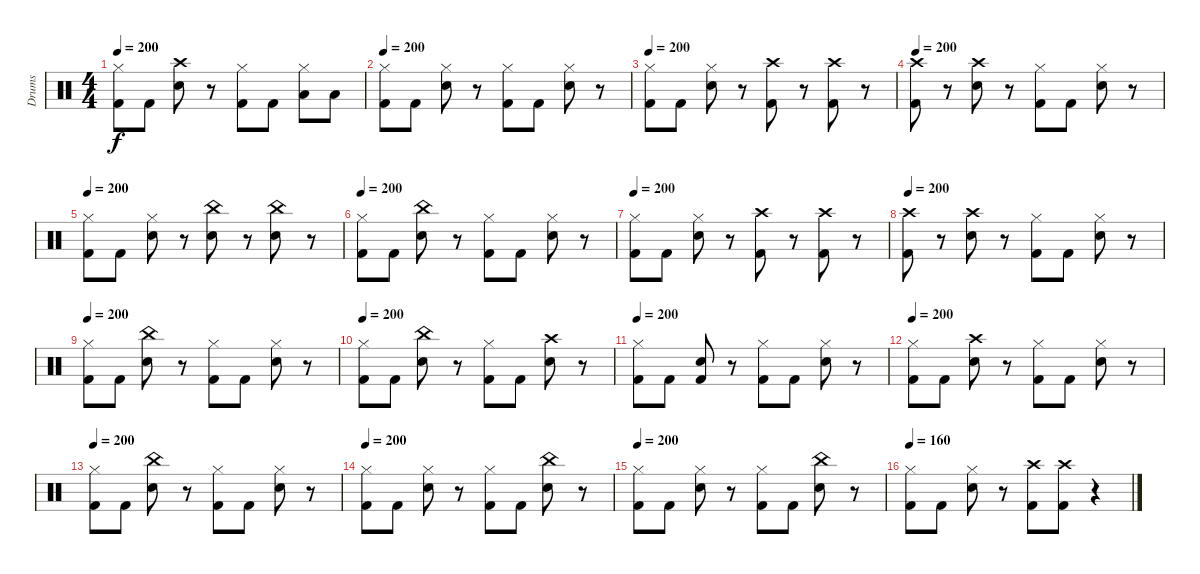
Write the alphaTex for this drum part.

\track ("Drums" "Drums") {instrument percussion}
\staff {score}
\articulation defaults
\ts (4 4)
\tempo 200
\clef neutral
\ks c
("Kick (hit) 2" "Hi-Hat (closed)").8{dy f} "Kick (hit) 2".8 ("Crash high (hit)" "Snare (hit) 2").8 r.8 ("Hi-Hat (closed)" "Kick (hit) 2").8 "Kick (hit) 2".8 ("Low Tom (hit)" "Hi-Hat (closed)").8 "Low Tom (hit)".8 |
\tempo 200
("Hi-Hat (closed)" "Kick (hit) 2").8 "Kick (hit) 2".8 ("Snare (hit) 2" "Hi-Hat (closed)").8 r.8 ("Hi-Hat (closed)" "Kick (hit) 2").8 "Kick (hit) 2".8 ("Snare (hit) 2" "Hi-Hat (closed)").8 r.8 |
\tempo 200
("Kick (hit) 2" "Hi-Hat (closed)").8 "Kick (hit) 2".8 ("Snare (hit) 2" "Hi-Hat (closed)").8 r.8 ("Crash high (hit)" "Kick (hit) 2").8 r.8 ("Crash high (hit)" "Kick (hit) 2").8 r.8 |
\tempo 200
("Kick (hit) 2" "Crash high (hit)").8 r.8 ("Crash high (hit)" "Snare (hit) 2").8 r.8 ("Hi-Hat (closed)" "Kick (hit) 2").8 "Kick (hit) 2".8 ("Hi-Hat (closed)" "Snare (hit) 2").8 r.8 |
\tempo 200
("Hi-Hat (closed)" "Kick (hit) 2").8 "Kick (hit) 2".8 ("Snare (hit) 2" "Hi-Hat (closed)").8 r.8 ("China (hit)" "Snare (hit) 2").8 r.8 ("China (hit)" "Snare (hit) 2").8 r.8 |
\tempo 200
("Hi-Hat (closed)" "Kick (hit) 2").8 "Kick (hit) 2".8 ("Snare (hit) 2" "China (hit)").8 r.8 ("Hi-Hat (closed)" "Kick (hit) 2").8 "Kick (hit) 2".8 ("Snare (hit) 2" "Hi-Hat (closed)").8 r.8 |
\tempo 200
("Kick (hit) 2" "Hi-Hat (closed)").8 "Kick (hit) 2".8 ("Snare (hit) 2" "Hi-Hat (closed)").8 r.8 ("Crash high (hit)" "Kick (hit) 2").8 r.8 ("Crash high (hit)" "Kick (hit) 2").8 r.8 |
\tempo 200
("Kick (hit) 2" "Crash high (hit)").8 r.8 ("Crash high (hit)" "Snare (hit) 2").8 r.8 ("Hi-Hat (closed)" "Kick (hit) 2").8 "Kick (hit) 2".8 ("Hi-Hat (closed)" "Snare (hit) 2").8 r.8 |
\tempo 200
("Hi-Hat (closed)" "Kick (hit) 2").8 "Kick (hit) 2".8 ("Snare (hit) 2" "China (hit)").8 r.8 ("Hi-Hat (closed)" "Kick (hit) 2").8 "Kick (hit) 2".8 ("Snare (hit) 2" "Hi-Hat (closed)").8 r.8 |
\tempo 200
("Hi-Hat (closed)" "Kick (hit) 2").8 "Kick (hit) 2".8 ("Snare (hit) 2" "China (hit)").8 r.8 ("Hi-Hat (closed)" "Kick (hit) 2").8 "Kick (hit) 2".8 ("Snare (hit) 2" "Crash high (hit)").8 r.8 |
\tempo 200
("Hi-Hat (closed)" "Kick (hit) 2").8 "Kick (hit) 2".8 ("Snare (hit) 2" "Kick (hit) 2").8 r.8 ("Hi-Hat (closed)" "Kick (hit) 2").8 "Kick (hit) 2".8 ("Snare (hit) 2" "Hi-Hat (closed)").8 r.8 |
\tempo 200
("Hi-Hat (closed)" "Kick (hit) 2").8 "Kick (hit) 2".8 ("Snare (hit) 2" "Crash high (hit)").8 r.8 ("Hi-Hat (closed)" "Kick (hit) 2").8 "Kick (hit) 2".8 ("Snare (hit) 2" "Hi-Hat (closed)").8 r.8 |
\tempo 200
("Hi-Hat (closed)" "Kick (hit) 2").8 "Kick (hit) 2".8 ("Snare (hit) 2" "China (hit)").8 r.8 ("Hi-Hat (closed)" "Kick (hit) 2").8 "Kick (hit) 2".8 ("Snare (hit) 2" "Hi-Hat (closed)").8 r.8 |
\tempo 200
("Hi-Hat (closed)" "Kick (hit) 2").8 "Kick (hit) 2".8 ("Snare (hit) 2" "Hi-Hat (closed)").8 r.8 ("Hi-Hat (closed)" "Kick (hit) 2").8 "Kick (hit) 2".8 ("Snare (hit) 2" "China (hit)").8 r.8 |
\tempo 200
("Hi-Hat (closed)" "Kick (hit) 2").8 "Kick (hit) 2".8 ("Snare (hit) 2" "Hi-Hat (closed)").8 r.8 ("Hi-Hat (closed)" "Kick (hit) 2").8 "Kick (hit) 2".8 ("Snare (hit) 2" "China (hit)").8 r.8 |
\tempo 160
("Hi-Hat (closed)" "Kick (hit) 2").8 "Kick (hit) 2".8 ("Snare (hit) 2" "Hi-Hat (closed)").8 r.8 ("Crash high (hit)" "Kick (hit) 2").8 ("Crash high (hit)" "Kick (hit) 2").8 r.4
